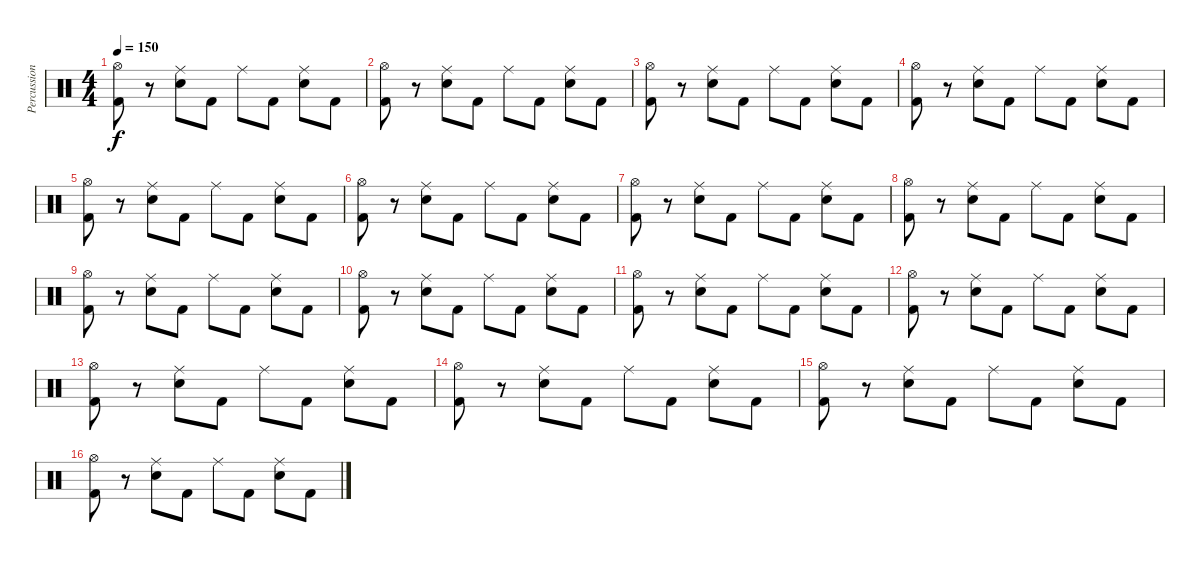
\track ("Percussion" "Percussion") {instrument percussion}
\staff {score}
\articulation defaults
\ts (4 4)
\tempo 150
\clef neutral
\ks c
("Hi-Hat (open)" "Kick (hit) 2").8{dy f} r.8 ("Ride (middle)" "Snare (hit) 2").8 "Kick (hit) 2".8 "Ride (middle)".8 "Kick (hit) 2".8 ("Ride (middle)" "Snare (hit) 2").8 "Kick (hit) 2".8 |
("Hi-Hat (open)" "Kick (hit) 2").8 r.8 ("Ride (middle)" "Snare (hit) 2").8 "Kick (hit) 2".8 "Ride (middle)".8 "Kick (hit) 2".8 ("Ride (middle)" "Snare (hit) 2").8 "Kick (hit) 2".8 |
("Hi-Hat (open)" "Kick (hit) 2").8 r.8 ("Ride (middle)" "Snare (hit) 2").8 "Kick (hit) 2".8 "Ride (middle)".8 "Kick (hit) 2".8 ("Ride (middle)" "Snare (hit) 2").8 "Kick (hit) 2".8 |
("Hi-Hat (open)" "Kick (hit) 2").8 r.8 ("Ride (middle)" "Snare (hit) 2").8 "Kick (hit) 2".8 "Ride (middle)".8 "Kick (hit) 2".8 ("Ride (middle)" "Snare (hit) 2").8 "Kick (hit) 2".8 |
("Hi-Hat (open)" "Kick (hit) 2").8 r.8 ("Ride (middle)" "Snare (hit) 2").8 "Kick (hit) 2".8 "Ride (middle)".8 "Kick (hit) 2".8 ("Ride (middle)" "Snare (hit) 2").8 "Kick (hit) 2".8 |
("Hi-Hat (open)" "Kick (hit) 2").8 r.8 ("Ride (middle)" "Snare (hit) 2").8 "Kick (hit) 2".8 "Ride (middle)".8 "Kick (hit) 2".8 ("Ride (middle)" "Snare (hit) 2").8 "Kick (hit) 2".8 |
("Hi-Hat (open)" "Kick (hit) 2").8 r.8 ("Ride (middle)" "Snare (hit) 2").8 "Kick (hit) 2".8 "Ride (middle)".8 "Kick (hit) 2".8 ("Ride (middle)" "Snare (hit) 2").8 "Kick (hit) 2".8 |
("Hi-Hat (open)" "Kick (hit) 2").8 r.8 ("Ride (middle)" "Snare (hit) 2").8 "Kick (hit) 2".8 "Ride (middle)".8 "Kick (hit) 2".8 ("Ride (middle)" "Snare (hit) 2").8 "Kick (hit) 2".8 |
("Hi-Hat (open)" "Kick (hit) 2").8 r.8 ("Ride (middle)" "Snare (hit) 2").8 "Kick (hit) 2".8 "Ride (middle)".8 "Kick (hit) 2".8 ("Ride (middle)" "Snare (hit) 2").8 "Kick (hit) 2".8 |
("Hi-Hat (open)" "Kick (hit) 2").8 r.8 ("Ride (middle)" "Snare (hit) 2").8 "Kick (hit) 2".8 "Ride (middle)".8 "Kick (hit) 2".8 ("Ride (middle)" "Snare (hit) 2").8 "Kick (hit) 2".8 |
("Hi-Hat (open)" "Kick (hit) 2").8 r.8 ("Ride (middle)" "Snare (hit) 2").8 "Kick (hit) 2".8 "Ride (middle)".8 "Kick (hit) 2".8 ("Ride (middle)" "Snare (hit) 2").8 "Kick (hit) 2".8 |
("Hi-Hat (open)" "Kick (hit) 2").8 r.8 ("Ride (middle)" "Snare (hit) 2").8 "Kick (hit) 2".8 "Ride (middle)".8 "Kick (hit) 2".8 ("Ride (middle)" "Snare (hit) 2").8 "Kick (hit) 2".8 |
("Hi-Hat (open)" "Kick (hit) 2").8 r.8 ("Ride (middle)" "Snare (hit) 2").8 "Kick (hit) 2".8 "Ride (middle)".8 "Kick (hit) 2".8 ("Ride (middle)" "Snare (hit) 2").8 "Kick (hit) 2".8 |
("Hi-Hat (open)" "Kick (hit) 2").8 r.8 ("Ride (middle)" "Snare (hit) 2").8 "Kick (hit) 2".8 "Ride (middle)".8 "Kick (hit) 2".8 ("Ride (middle)" "Snare (hit) 2").8 "Kick (hit) 2".8 |
("Hi-Hat (open)" "Kick (hit) 2").8 r.8 ("Ride (middle)" "Snare (hit) 2").8 "Kick (hit) 2".8 "Ride (middle)".8 "Kick (hit) 2".8 ("Ride (middle)" "Snare (hit) 2").8 "Kick (hit) 2".8 |
("Hi-Hat (open)" "Kick (hit) 2").8 r.8 ("Ride (middle)" "Snare (hit) 2").8 "Kick (hit) 2".8 "Ride (middle)".8 "Kick (hit) 2".8 ("Ride (middle)" "Snare (hit) 2").8 "Kick (hit) 2".8
